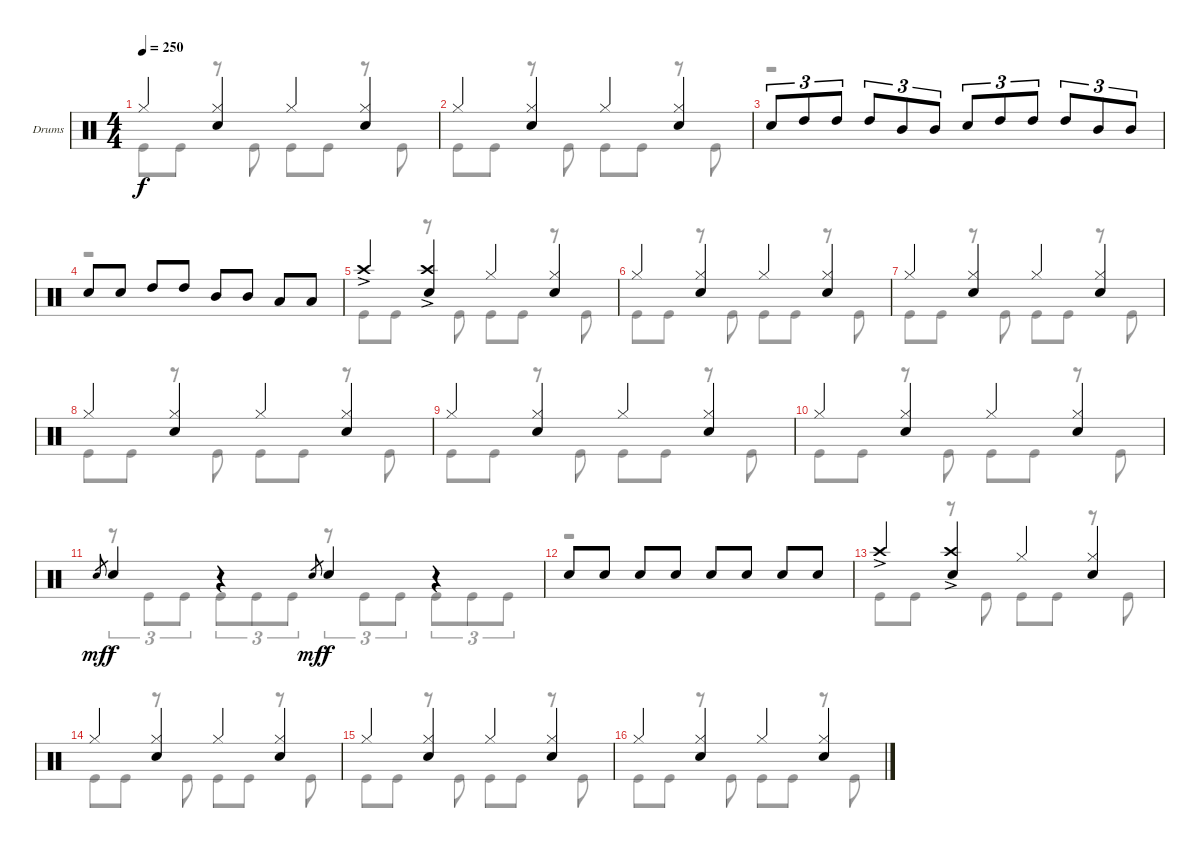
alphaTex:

\bracketExtendMode groupsimilarinstruments
\firstSystemTrackNameOrientation horizontal
\otherSystemsTrackNameOrientation horizontal
\track ("Drumkit" "Drums") {instrument percussion}
\staff {score}
\articulation defaults
\voice
\ts (4 4)
\tempo 250
\clef neutral
\ks c "Hi-Hat (closed)".4{dy f}
("Hi-Hat (closed)" "Snare (hit) 2").4 "Hi-Hat (closed)".4 ("Hi-Hat (closed)" "Snare (hit) 2").4 |
"Hi-Hat (closed)".4 ("Hi-Hat (closed)" "Snare (hit) 2").4 "Hi-Hat (closed)".4 ("Hi-Hat (closed)" "Snare (hit) 2").4 |
"Snare (hit) 2".8{tu (3 2)} "High Tom (hit)".8{tu (3 2)} "High Tom (hit)".8{tu (3 2)} "High Tom (hit)".8{tu (3 2)} "Mid Tom (hit)".8{tu (3 2)} "Mid Tom (hit)".8{tu (3 2)} "Snare (hit) 2".8{tu (3 2)} "High Tom (hit)".8{tu (3 2)} "High Tom (hit)".8{tu (3 2)} "High Tom (hit)".8{tu (3 2)} "Mid Tom (hit)".8{tu (3 2)} "Mid Tom (hit)".8{tu (3 2)} |
"Snare (hit) 2".8 "Snare (hit) 2".8 "High Tom (hit)".8 "High Tom (hit)".8 "Mid Tom (hit)".8 "Mid Tom (hit)".8 "Low Tom (hit)".8 "Low Tom (hit)".8 |
"Crash high (hit)"{ac}.4 ("Crash high (hit)"{ac} "Snare (hit) 2").4 "Hi-Hat (closed)".4 ("Hi-Hat (closed)" "Snare (hit) 2").4 |
"Hi-Hat (closed)".4 ("Hi-Hat (closed)" "Snare (hit) 2").4 "Hi-Hat (closed)".4 ("Hi-Hat (closed)" "Snare (hit) 2").4 |
"Hi-Hat (closed)".4 ("Hi-Hat (closed)" "Snare (hit) 2").4 "Hi-Hat (closed)".4 ("Hi-Hat (closed)" "Snare (hit) 2").4 |
"Hi-Hat (closed)".4 ("Hi-Hat (closed)" "Snare (hit) 2").4 "Hi-Hat (closed)".4 ("Hi-Hat (closed)" "Snare (hit) 2").4 |
"Hi-Hat (closed)".4 ("Hi-Hat (closed)" "Snare (hit) 2").4 "Hi-Hat (closed)".4 ("Hi-Hat (closed)" "Snare (hit) 2").4 |
"Hi-Hat (closed)".4 ("Hi-Hat (closed)" "Snare (hit) 2").4 "Hi-Hat (closed)".4 ("Hi-Hat (closed)" "Snare (hit) 2").4 |
"Snare (hit) 2".8{gr dy mf} "Snare (hit) 2".4{dy f} r.4 "Snare (hit) 2".8{gr dy mf} "Snare (hit) 2".4{dy f} r.4 |
"Snare (hit) 2".8 "Snare (hit) 2".8 "Snare (hit) 2".8 "Snare (hit) 2".8 "Snare (hit) 2".8 "Snare (hit) 2".8 "Snare (hit) 2".8 "Snare (hit) 2".8 |
"Crash high (hit)"{ac}.4 ("Crash high (hit)"{ac} "Snare (hit) 2").4 "Hi-Hat (closed)".4 ("Hi-Hat (closed)" "Snare (hit) 2").4 |
"Hi-Hat (closed)".4 ("Hi-Hat (closed)" "Snare (hit) 2").4 "Hi-Hat (closed)".4 ("Hi-Hat (closed)" "Snare (hit) 2").4 |
"Hi-Hat (closed)".4 ("Hi-Hat (closed)" "Snare (hit) 2").4 "Hi-Hat (closed)".4 ("Hi-Hat (closed)" "Snare (hit) 2").4 |
"Hi-Hat (closed)".4 ("Hi-Hat (closed)" "Snare (hit) 2").4 "Hi-Hat (closed)".4 ("Hi-Hat (closed)" "Snare (hit) 2").4
\voice
\clef neutral
\ottava regular
\simile none
\ks c "Kick (hit)".8{dy f} "Kick (hit)".8
r.8 "Kick (hit)".8 "Kick (hit)".8 "Kick (hit)".8 r.8 "Kick (hit)".8 |
"Kick (hit)".8 "Kick (hit)".8 r.8 "Kick (hit)".8 "Kick (hit)".8 "Kick (hit)".8 r.8 "Kick (hit)".8 |
r.1 |
r.1 |
"Kick (hit)".8 "Kick (hit)".8 r.8 "Kick (hit)".8 "Kick (hit)".8 "Kick (hit)".8 r.8 "Kick (hit)".8 |
"Kick (hit)".8 "Kick (hit)".8 r.8 "Kick (hit)".8 "Kick (hit)".8 "Kick (hit)".8 r.8 "Kick (hit)".8 |
"Kick (hit)".8 "Kick (hit)".8 r.8 "Kick (hit)".8 "Kick (hit)".8 "Kick (hit)".8 r.8 "Kick (hit)".8 |
"Kick (hit)".8 "Kick (hit)".8 r.8 "Kick (hit)".8 "Kick (hit)".8 "Kick (hit)".8 r.8 "Kick (hit)".8 |
"Kick (hit)".8 "Kick (hit)".8 r.8 "Kick (hit)".8 "Kick (hit)".8 "Kick (hit)".8 r.8 "Kick (hit)".8 |
"Kick (hit)".8 "Kick (hit)".8 r.8 "Kick (hit)".8 "Kick (hit)".8 "Kick (hit)".8 r.8 "Kick (hit)".8 |
r.8{tu (3 2)} "Kick (hit)".8{tu (3 2)} "Kick (hit)".8{tu (3 2)} "Kick (hit)".8{tu (3 2)} "Kick (hit)".8{tu (3 2)} "Kick (hit)".8{tu (3 2)} r.8{tu (3 2)} "Kick (hit)".8{tu (3 2)} "Kick (hit)".8{tu (3 2)} "Kick (hit)".8{tu (3 2)} "Kick (hit)".8{tu (3 2)} "Kick (hit)".8{tu (3 2)} |
r.1 |
"Kick (hit)".8 "Kick (hit)".8 r.8 "Kick (hit)".8 "Kick (hit)".8 "Kick (hit)".8 r.8 "Kick (hit)".8 |
"Kick (hit)".8 "Kick (hit)".8 r.8 "Kick (hit)".8 "Kick (hit)".8 "Kick (hit)".8 r.8 "Kick (hit)".8 |
"Kick (hit)".8 "Kick (hit)".8 r.8 "Kick (hit)".8 "Kick (hit)".8 "Kick (hit)".8 r.8 "Kick (hit)".8 |
"Kick (hit)".8 "Kick (hit)".8 r.8 "Kick (hit)".8 "Kick (hit)".8 "Kick (hit)".8 r.8 "Kick (hit)".8
